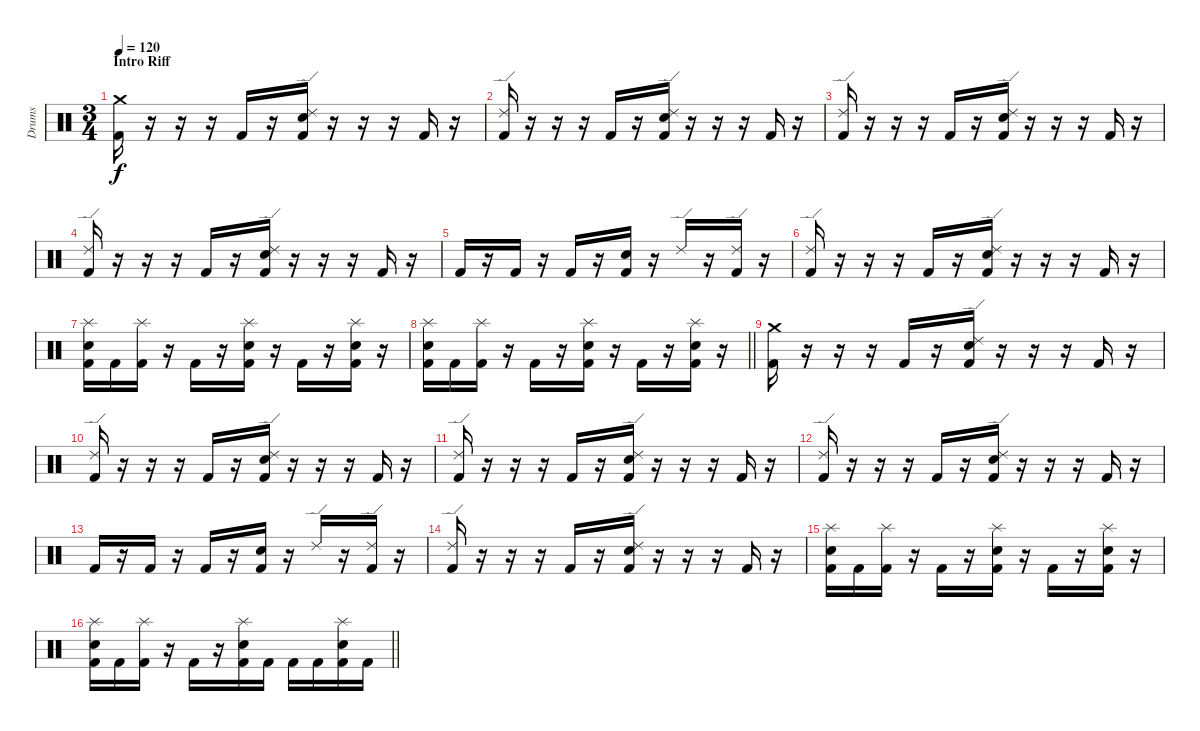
\track ("Drums" "Drums") {instrument percussion}
\staff {score}
\articulation defaults
\ts (3 4)
\section ("" "Intro Riff")
\tempo 120
\clef neutral
\ks c
("Kick (hit) 2" "Crash medium (hit)").16{dy f} r.16 r.16 r.16 "Kick (hit) 2".16 r.16 ("Kick (hit) 2" "Ride (edge) 2" "Snare (hit) 2").16 r.16 r.16 r.16 "Kick (hit) 2".16 r.16 |
("Kick (hit) 2" "Ride (edge) 2").16 r.16 r.16 r.16 "Kick (hit) 2".16 r.16 ("Kick (hit) 2" "Ride (edge) 2" "Snare (hit) 2").16 r.16 r.16 r.16 "Kick (hit) 2".16 r.16 |
("Kick (hit) 2" "Ride (edge) 2").16 r.16 r.16 r.16 "Kick (hit) 2".16 r.16 ("Kick (hit) 2" "Ride (edge) 2" "Snare (hit) 2").16 r.16 r.16 r.16 "Kick (hit) 2".16 r.16 |
("Kick (hit) 2" "Ride (edge) 2").16 r.16 r.16 r.16 "Kick (hit) 2".16 r.16 ("Kick (hit) 2" "Ride (edge) 2" "Snare (hit) 2").16 r.16 r.16 r.16 "Kick (hit) 2".16 r.16 |
"Kick (hit) 2".16 r.16 "Kick (hit) 2".16 r.16 "Kick (hit) 2".16 r.16 ("Kick (hit) 2" "Snare (hit) 2").16 r.16 "Ride (edge) 2".16 r.16 ("Kick (hit) 2" "Ride (edge) 2").16 r.16 |
("Kick (hit) 2" "Ride (edge) 2").16 r.16 r.16 r.16 "Kick (hit) 2".16 r.16 ("Kick (hit) 2" "Ride (edge) 2" "Snare (hit) 2").16 r.16 r.16 r.16 "Kick (hit) 2".16 r.16 |
("Kick (hit) 2" "Splash (hit)" "Snare (hit) 2").16 "Kick (hit) 2".16 ("Kick (hit) 2" "Splash (hit)").16 r.16 "Kick (hit) 2".16 r.16 ("Kick (hit) 2" "Splash (hit)" "Snare (hit) 2").16 r.16 "Kick (hit) 2".16 r.16 ("Kick (hit) 2" "Splash (hit)" "Snare (hit) 2").16 r.16 |
\barLineRight lightlight
("Kick (hit) 2" "Splash (hit)" "Snare (hit) 2").16 "Kick (hit) 2".16 ("Kick (hit) 2" "Splash (hit)").16 r.16 "Kick (hit) 2".16 r.16 ("Kick (hit) 2" "Splash (hit)" "Snare (hit) 2").16 r.16 "Kick (hit) 2".16 r.16 ("Kick (hit) 2" "Splash (hit)" "Snare (hit) 2").16 r.16 |
("Kick (hit) 2" "Crash medium (hit)").16 r.16 r.16 r.16 "Kick (hit) 2".16 r.16 ("Kick (hit) 2" "Ride (edge) 2" "Snare (hit) 2").16 r.16 r.16 r.16 "Kick (hit) 2".16 r.16 |
("Kick (hit) 2" "Ride (edge) 2").16 r.16 r.16 r.16 "Kick (hit) 2".16 r.16 ("Kick (hit) 2" "Ride (edge) 2" "Snare (hit) 2").16 r.16 r.16 r.16 "Kick (hit) 2".16 r.16 |
("Kick (hit) 2" "Ride (edge) 2").16 r.16 r.16 r.16 "Kick (hit) 2".16 r.16 ("Kick (hit) 2" "Ride (edge) 2" "Snare (hit) 2").16 r.16 r.16 r.16 "Kick (hit) 2".16 r.16 |
("Kick (hit) 2" "Ride (edge) 2").16 r.16 r.16 r.16 "Kick (hit) 2".16 r.16 ("Kick (hit) 2" "Ride (edge) 2" "Snare (hit) 2").16 r.16 r.16 r.16 "Kick (hit) 2".16 r.16 |
"Kick (hit) 2".16 r.16 "Kick (hit) 2".16 r.16 "Kick (hit) 2".16 r.16 ("Kick (hit) 2" "Snare (hit) 2").16 r.16 "Ride (edge) 2".16 r.16 ("Kick (hit) 2" "Ride (edge) 2").16 r.16 |
("Kick (hit) 2" "Ride (edge) 2").16 r.16 r.16 r.16 "Kick (hit) 2".16 r.16 ("Kick (hit) 2" "Ride (edge) 2" "Snare (hit) 2").16 r.16 r.16 r.16 "Kick (hit) 2".16 r.16 |
("Kick (hit) 2" "Splash (hit)" "Snare (hit) 2").16 "Kick (hit) 2".16 ("Kick (hit) 2" "Splash (hit)").16 r.16 "Kick (hit) 2".16 r.16 ("Kick (hit) 2" "Splash (hit)" "Snare (hit) 2").16 r.16 "Kick (hit) 2".16 r.16 ("Kick (hit) 2" "Splash (hit)" "Snare (hit) 2").16 r.16 |
\barLineRight lightlight
("Kick (hit) 2" "Splash (hit)" "Snare (hit) 2").16 "Kick (hit) 2".16 ("Kick (hit) 2" "Splash (hit)").16 r.16 "Kick (hit) 2".16 r.16 ("Kick (hit) 2" "Splash (hit)" "Snare (hit) 2").16 "Kick (hit) 2".16 "Kick (hit) 2".16 "Kick (hit) 2".16 ("Kick (hit) 2" "Splash (hit)" "Snare (hit) 2").16 "Kick (hit) 2".16
